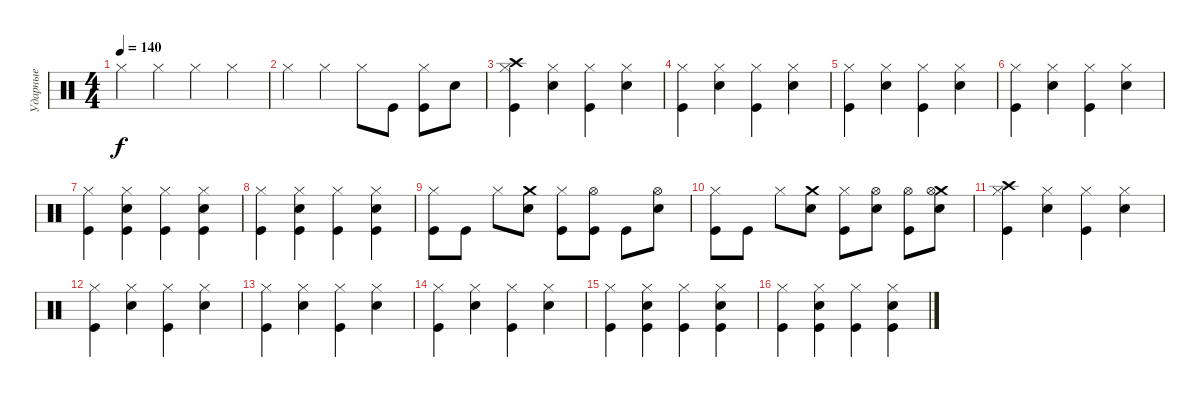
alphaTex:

\track ("Ударные" "Ударные") {instrument percussion}
\staff {score}
\articulation defaults
\ts (4 4)
\tempo 140
\clef neutral
\ks c "Hi-Hat (closed)".4{dy f} "Hi-Hat (closed)".4 "Hi-Hat (closed)".4 "Hi-Hat (closed)".4
|
"Hi-Hat (closed)".4 "Hi-Hat (closed)".4 "Hi-Hat (closed)".8 "Kick (hit)".8 ("Hi-Hat (closed)" "Kick (hit)").8 "Electric Snare (hit)".8 |
("Crash high (hit)" "Hi-Hat (closed)" "Kick (hit)").4 ("Hi-Hat (closed)" "Electric Snare (hit)").4 ("Hi-Hat (closed)" "Kick (hit)").4 ("Hi-Hat (closed)" "Electric Snare (hit)").4 |
("Hi-Hat (closed)" "Kick (hit)").4 ("Hi-Hat (closed)" "Electric Snare (hit)").4 ("Hi-Hat (closed)" "Kick (hit)").4 ("Hi-Hat (closed)" "Electric Snare (hit)").4 |
("Hi-Hat (closed)" "Kick (hit)").4 ("Hi-Hat (closed)" "Electric Snare (hit)").4 ("Hi-Hat (closed)" "Kick (hit)").4 ("Hi-Hat (closed)" "Electric Snare (hit)").4 |
("Hi-Hat (closed)" "Kick (hit)").4 ("Hi-Hat (closed)" "Electric Snare (hit)").4 ("Hi-Hat (closed)" "Kick (hit)").4 ("Hi-Hat (closed)" "Electric Snare (hit)").4 |
("Hi-Hat (closed)" "Kick (hit)").4 ("Kick (hit)" "Hi-Hat (closed)" "Electric Snare (hit)").4 ("Hi-Hat (closed)" "Kick (hit)").4 ("Kick (hit)" "Hi-Hat (closed)" "Electric Snare (hit)").4 |
("Hi-Hat (closed)" "Kick (hit)").4 ("Kick (hit)" "Hi-Hat (closed)" "Electric Snare (hit)").4 ("Hi-Hat (closed)" "Kick (hit)").4 ("Kick (hit)" "Hi-Hat (closed)" "Electric Snare (hit)").4 |
("Hi-Hat (closed)" "Kick (hit)").8 "Kick (hit)".8 "Hi-Hat (closed)".8 ("Crash medium (hit)" "Electric Snare (hit)").8 ("Hi-Hat (closed)" "Kick (hit)").8 ("Kick (hit)" "Hi-Hat (open)").8 "Kick (hit)".8 ("Electric Snare (hit)" "Hi-Hat (open)").8 |
("Hi-Hat (closed)" "Kick (hit)").8 "Kick (hit)".8 "Hi-Hat (closed)".8 ("Crash medium (hit)" "Electric Snare (hit)").8 ("Hi-Hat (closed)" "Kick (hit)").8 ("Electric Snare (hit)" "Hi-Hat (open)").8 ("Kick (hit)" "Hi-Hat (open)").8 ("Crash medium (hit)" "Electric Snare (hit)" "Hi-Hat (open)").8 |
("Crash high (hit)" "Hi-Hat (closed)" "Kick (hit)").4 ("Hi-Hat (closed)" "Electric Snare (hit)").4 ("Hi-Hat (closed)" "Kick (hit)").4 ("Hi-Hat (closed)" "Electric Snare (hit)").4 |
("Hi-Hat (closed)" "Kick (hit)").4 ("Hi-Hat (closed)" "Electric Snare (hit)").4 ("Hi-Hat (closed)" "Kick (hit)").4 ("Hi-Hat (closed)" "Electric Snare (hit)").4 |
("Hi-Hat (closed)" "Kick (hit)").4 ("Hi-Hat (closed)" "Electric Snare (hit)").4 ("Hi-Hat (closed)" "Kick (hit)").4 ("Hi-Hat (closed)" "Electric Snare (hit)").4 |
("Hi-Hat (closed)" "Kick (hit)").4 ("Hi-Hat (closed)" "Electric Snare (hit)").4 ("Hi-Hat (closed)" "Kick (hit)").4 ("Hi-Hat (closed)" "Electric Snare (hit)").4 |
("Hi-Hat (closed)" "Kick (hit)").4 ("Kick (hit)" "Hi-Hat (closed)" "Electric Snare (hit)").4 ("Hi-Hat (closed)" "Kick (hit)").4 ("Kick (hit)" "Hi-Hat (closed)" "Electric Snare (hit)").4 |
("Hi-Hat (closed)" "Kick (hit)").4 ("Kick (hit)" "Hi-Hat (closed)" "Electric Snare (hit)").4 ("Hi-Hat (closed)" "Kick (hit)").4 ("Kick (hit)" "Hi-Hat (closed)" "Electric Snare (hit)").4
